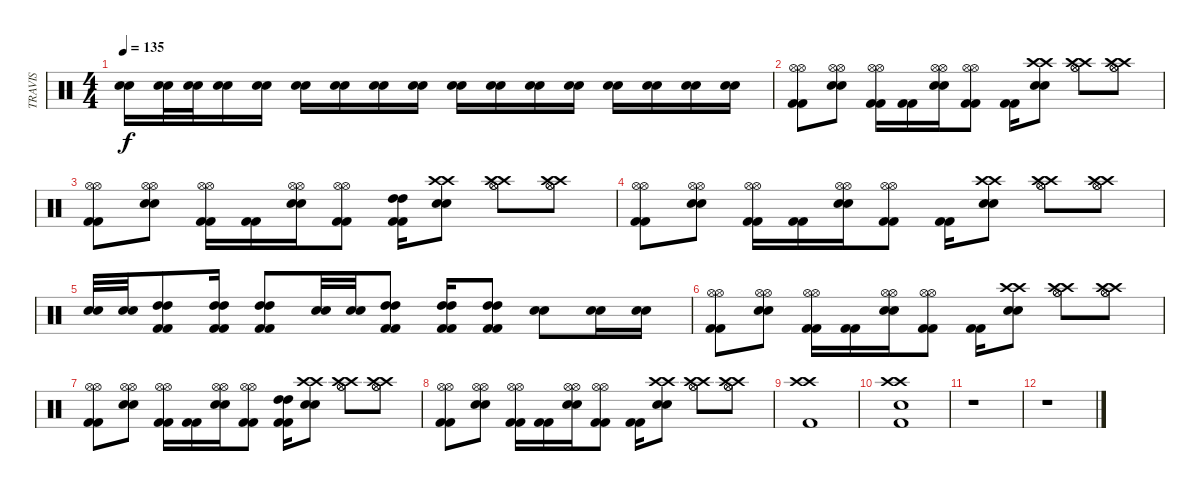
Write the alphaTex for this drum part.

\track ("TRAVIS" "TRAVIS") {instrument percussion}
\staff {score}
\articulation defaults
\ts (4 4)
\tempo 135
\clef neutral
\ks c
("Snare (hit) 2" "Snare (hit) 2").16{dy f} ("Snare (hit) 2" "Snare (hit) 2").32 ("Snare (hit) 2" "Snare (hit) 2").32 ("Snare (hit) 2" "Snare (hit) 2").16 ("Snare (hit) 2" "Snare (hit) 2").16 ("Snare (hit) 2" "Snare (hit) 2").16 ("Snare (hit) 2" "Snare (hit) 2").16 ("Snare (hit) 2" "Snare (hit) 2").16 ("Snare (hit) 2" "Snare (hit) 2").16 ("Snare (hit) 2" "Snare (hit) 2").16 ("Snare (hit) 2" "Snare (hit) 2").16 ("Snare (hit) 2" "Snare (hit) 2").16 ("Snare (hit) 2" "Snare (hit) 2").16 ("Snare (hit) 2" "Snare (hit) 2").16 ("Snare (hit) 2" "Snare (hit) 2").16 ("Snare (hit) 2" "Snare (hit) 2").16 ("Snare (hit) 2" "Snare (hit) 2").16 |
("Kick (hit) 2" "Kick (hit) 2" "Hi-Hat (open)" "Hi-Hat (open)").8 ("Snare (hit) 2" "Snare (hit) 2" "Hi-Hat (open)" "Hi-Hat (open)").8 ("Kick (hit) 2" "Kick (hit) 2" "Hi-Hat (open)" "Hi-Hat (open)").16 ("Kick (hit) 2" "Kick (hit) 2").16 ("Snare (hit) 2" "Snare (hit) 2" "Hi-Hat (open)" "Hi-Hat (open)").16 ("Kick (hit) 2" "Kick (hit) 2" "Hi-Hat (open)" "Hi-Hat (open)").8 ("Kick (hit) 2" "Kick (hit) 2").16 ("Snare (hit) 2" "Snare (hit) 2" "Crash high (hit)" "Crash high (hit)").8 ("Crash high (hit)" "Crash high (hit)" "Hi-Hat (open)" "Hi-Hat (open)").8 ("Crash high (hit)" "Crash high (hit)" "Hi-Hat (open)" "Hi-Hat (open)").8 |
("Kick (hit) 2" "Kick (hit) 2" "Hi-Hat (open)" "Hi-Hat (open)").8 ("Snare (hit) 2" "Snare (hit) 2" "Hi-Hat (open)" "Hi-Hat (open)").8 ("Kick (hit) 2" "Kick (hit) 2" "Hi-Hat (open)" "Hi-Hat (open)").16 ("Kick (hit) 2" "Kick (hit) 2").16 ("Snare (hit) 2" "Snare (hit) 2" "Hi-Hat (open)" "Hi-Hat (open)").16 ("Kick (hit) 2" "Kick (hit) 2" "Hi-Hat (open)" "Hi-Hat (open)").8 ("Kick (hit) 2" "Kick (hit) 2" "High Tom (hit)" "High Tom (hit)").16 ("Snare (hit) 2" "Snare (hit) 2" "Crash high (hit)" "Crash high (hit)").8 ("Crash high (hit)" "Crash high (hit)" "Hi-Hat (open)" "Hi-Hat (open)").8 ("Crash high (hit)" "Crash high (hit)" "Hi-Hat (open)" "Hi-Hat (open)").8 |
("Kick (hit) 2" "Kick (hit) 2" "Hi-Hat (open)" "Hi-Hat (open)").8 ("Snare (hit) 2" "Snare (hit) 2" "Hi-Hat (open)" "Hi-Hat (open)").8 ("Kick (hit) 2" "Kick (hit) 2" "Hi-Hat (open)" "Hi-Hat (open)").16 ("Kick (hit) 2" "Kick (hit) 2").16 ("Snare (hit) 2" "Snare (hit) 2" "Hi-Hat (open)" "Hi-Hat (open)").16 ("Kick (hit) 2" "Kick (hit) 2" "Hi-Hat (open)" "Hi-Hat (open)").8 ("Kick (hit) 2" "Kick (hit) 2").16 ("Snare (hit) 2" "Snare (hit) 2" "Crash high (hit)" "Crash high (hit)").8 ("Crash high (hit)" "Crash high (hit)" "Hi-Hat (open)" "Hi-Hat (open)").8 ("Crash high (hit)" "Crash high (hit)" "Hi-Hat (open)" "Hi-Hat (open)").8 |
("Snare (hit) 2" "Snare (hit) 2").32 ("Snare (hit) 2" "Snare (hit) 2").32 ("Kick (hit) 2" "Kick (hit) 2" "High Tom (hit)" "High Tom (hit)").8 ("Kick (hit) 2" "Kick (hit) 2" "High Tom (hit)" "High Tom (hit)").16 ("Kick (hit) 2" "Kick (hit) 2" "High Tom (hit)" "High Tom (hit)").8 ("Snare (hit) 2" "Snare (hit) 2").32 ("Snare (hit) 2" "Snare (hit) 2").32 ("Kick (hit) 2" "Kick (hit) 2" "High Tom (hit)" "High Tom (hit)").8 ("Kick (hit) 2" "Kick (hit) 2" "High Tom (hit)" "High Tom (hit)").16 ("Kick (hit) 2" "Kick (hit) 2" "High Tom (hit)" "High Tom (hit)").8 ("Snare (hit) 2" "Snare (hit) 2").8 ("Snare (hit) 2" "Snare (hit) 2").16 ("Snare (hit) 2" "Snare (hit) 2").16 |
("Kick (hit) 2" "Kick (hit) 2" "Hi-Hat (open)" "Hi-Hat (open)").8 ("Snare (hit) 2" "Snare (hit) 2" "Hi-Hat (open)" "Hi-Hat (open)").8 ("Kick (hit) 2" "Kick (hit) 2" "Hi-Hat (open)" "Hi-Hat (open)").16 ("Kick (hit) 2" "Kick (hit) 2").16 ("Snare (hit) 2" "Snare (hit) 2" "Hi-Hat (open)" "Hi-Hat (open)").16 ("Kick (hit) 2" "Kick (hit) 2" "Hi-Hat (open)" "Hi-Hat (open)").8 ("Kick (hit) 2" "Kick (hit) 2").16 ("Snare (hit) 2" "Snare (hit) 2" "Crash high (hit)" "Crash high (hit)").8 ("Crash high (hit)" "Crash high (hit)" "Hi-Hat (open)" "Hi-Hat (open)").8 ("Crash high (hit)" "Crash high (hit)" "Hi-Hat (open)" "Hi-Hat (open)").8 |
("Kick (hit) 2" "Kick (hit) 2" "Hi-Hat (open)" "Hi-Hat (open)").8 ("Snare (hit) 2" "Snare (hit) 2" "Hi-Hat (open)" "Hi-Hat (open)").8 ("Kick (hit) 2" "Kick (hit) 2" "Hi-Hat (open)" "Hi-Hat (open)").16 ("Kick (hit) 2" "Kick (hit) 2").16 ("Snare (hit) 2" "Snare (hit) 2" "Hi-Hat (open)" "Hi-Hat (open)").16 ("Kick (hit) 2" "Kick (hit) 2" "Hi-Hat (open)" "Hi-Hat (open)").8 ("Kick (hit) 2" "Kick (hit) 2" "High Tom (hit)" "High Tom (hit)").16 ("Snare (hit) 2" "Snare (hit) 2" "Crash high (hit)" "Crash high (hit)").8 ("Crash high (hit)" "Crash high (hit)" "Hi-Hat (open)" "Hi-Hat (open)").8 ("Crash high (hit)" "Crash high (hit)" "Hi-Hat (open)" "Hi-Hat (open)").8 |
("Kick (hit) 2" "Kick (hit) 2" "Hi-Hat (open)" "Hi-Hat (open)").8 ("Snare (hit) 2" "Snare (hit) 2" "Hi-Hat (open)" "Hi-Hat (open)").8 ("Kick (hit) 2" "Kick (hit) 2" "Hi-Hat (open)" "Hi-Hat (open)").16 ("Kick (hit) 2" "Kick (hit) 2").16 ("Snare (hit) 2" "Snare (hit) 2" "Hi-Hat (open)" "Hi-Hat (open)").16 ("Kick (hit) 2" "Kick (hit) 2" "Hi-Hat (open)" "Hi-Hat (open)").8 ("Kick (hit) 2" "Kick (hit) 2").16 ("Snare (hit) 2" "Snare (hit) 2" "Crash high (hit)" "Crash high (hit)").8 ("Crash high (hit)" "Crash high (hit)" "Hi-Hat (open)" "Hi-Hat (open)").8 ("Crash high (hit)" "Crash high (hit)" "Hi-Hat (open)" "Hi-Hat (open)").8 |
("Crash high (hit)" "Crash high (hit)" "Kick (hit) 2").1 |
("Crash high (hit)" "Crash high (hit)" "Snare (hit) 2" "Kick (hit) 2").1 |
r.1 |
r.1
